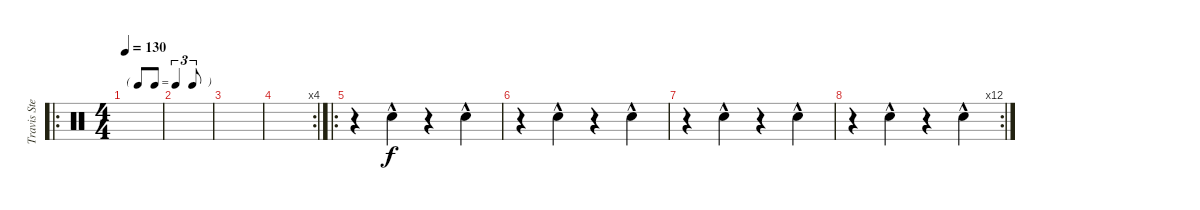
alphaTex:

\track ("Travis Stever (Hand Claps)" "Travis Ste") {instrument percussion}
\staff {score}
\articulation defaults
\ro
\ts (4 4)
\tf triplet8th
\tempo 130
\clef neutral
\ks c
|
|
|
\rc 4
|
\ro
r.4 "Hand Clap (hit)"{hac}.4 r.4 "Hand Clap (hit)"{hac}.4 |
r.4 "Hand Clap (hit)"{hac}.4 r.4 "Hand Clap (hit)"{hac}.4 |
r.4 "Hand Clap (hit)"{hac}.4 r.4 "Hand Clap (hit)"{hac}.4 |
\rc 12
r.4 "Hand Clap (hit)"{hac}.4 r.4 "Hand Clap (hit)"{hac}.4
